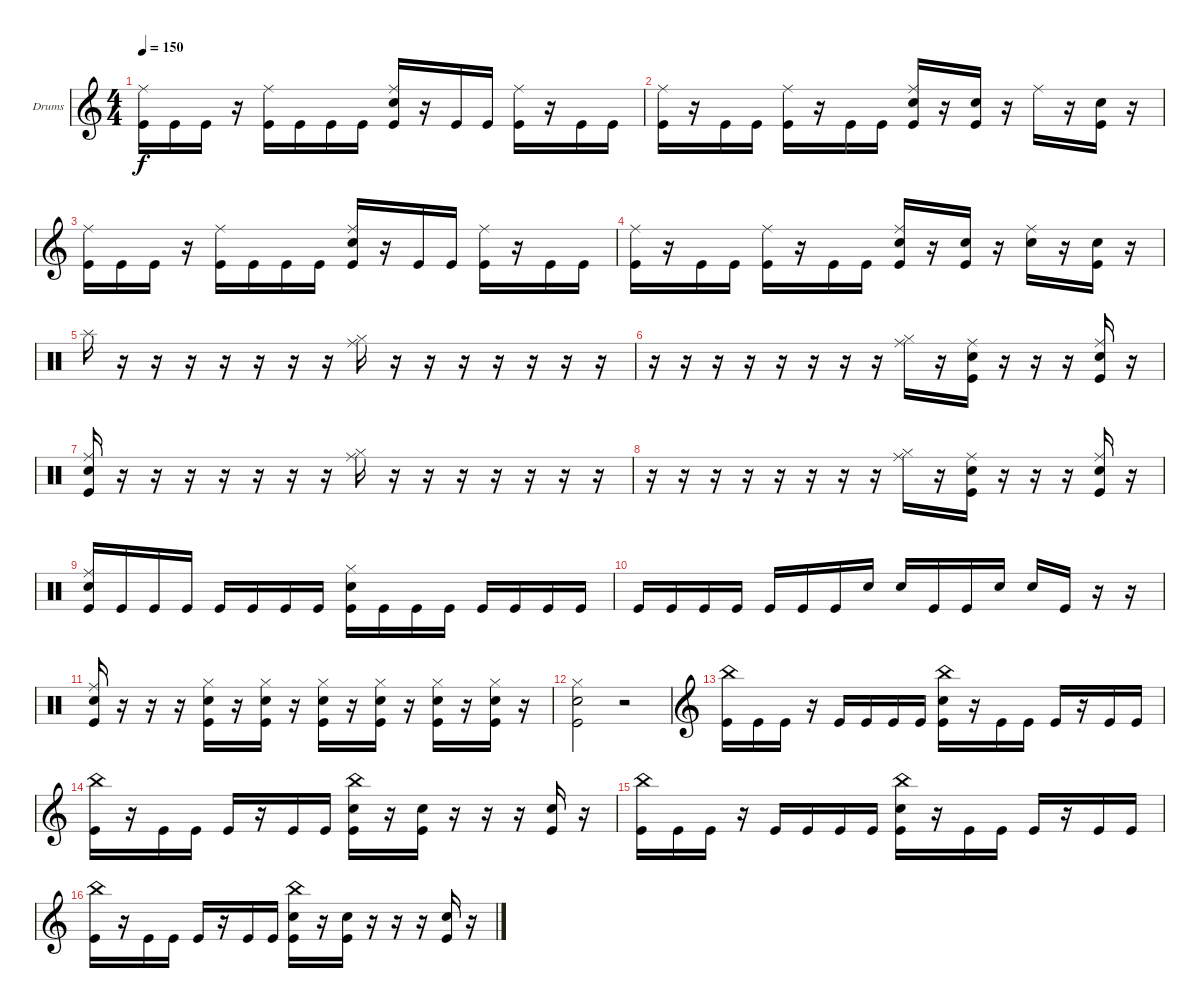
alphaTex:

\defaultSystemsLayout 4
\bracketExtendMode groupsimilarinstruments
\firstSystemTrackNameOrientation horizontal
\otherSystemsTrackNameOrientation horizontal
\track ("Drumkit" "Drums") {instrument percussion}
\staff {score}
\articulation defaults
\ts (4 4)
\tempo 150
\clef g2
\ks c
("Kick (hit)" "Ride (middle)").16{dy f} "Kick (hit)".16 "Kick (hit)".16 r.16 ("Kick (hit)" "Ride (middle)").16 "Kick (hit)".16 "Kick (hit)".16 "Kick (hit)".16 ("Kick (hit)" "Snare (hit) 2" "Ride (middle)").16 r.16 "Kick (hit)".16 "Kick (hit)".16 ("Kick (hit)" "Ride (middle)").16 r.16 "Kick (hit)".16 "Kick (hit)".16 |
("Kick (hit)" "Ride (middle)").16 r.16 "Kick (hit)".16 "Kick (hit)".16 ("Kick (hit)" "Ride (middle)").16 r.16 "Kick (hit)".16 "Kick (hit)".16 ("Kick (hit)" "Snare (hit) 2" "Ride (middle)").16 r.16 ("Kick (hit)" "Snare (hit) 2").16 r.16 "Ride (middle)".16 r.16 ("Kick (hit)" "Snare (hit) 2").16 r.16 |
("Kick (hit)" "Ride (middle)").16 "Kick (hit)".16 "Kick (hit)".16 r.16 ("Kick (hit)" "Ride (middle)").16 "Kick (hit)".16 "Kick (hit)".16 "Kick (hit)".16 ("Kick (hit)" "Snare (hit) 2" "Ride (middle)").16 r.16 "Kick (hit)".16 "Kick (hit)".16 ("Kick (hit)" "Ride (middle)").16 r.16 "Kick (hit)".16 "Kick (hit)".16 |
("Kick (hit)" "Ride (middle)").16 r.16 "Kick (hit)".16 "Kick (hit)".16 ("Kick (hit)" "Ride (middle)").16 r.16 "Kick (hit)".16 "Kick (hit)".16 ("Kick (hit)" "Snare (hit) 2" "Ride (middle)").16 r.16 ("Kick (hit)" "Snare (hit) 2").16 r.16 ("Snare (hit) 2" "Ride (middle)").16 r.16 ("Kick (hit)" "Snare (hit) 2").16 r.16 |
\clef neutral "Splash (hit)".16
r.16 r.16 r.16 r.16 r.16 r.16 r.16 ("Ride (middle)" "Hi-Hat (closed)").16 r.16 r.16 r.16 r.16 r.16 r.16 r.16 |
r.16 r.16 r.16 r.16 r.16 r.16 r.16 r.16 ("Ride (middle)" "Hi-Hat (closed)").16 r.16 ("Kick (hit)" "Snare (hit) 2" "Ride (middle)").16 r.16 r.16 r.16 ("Kick (hit)" "Snare (hit) 2" "Ride (middle)").16 r.16 |
("Snare (hit) 2" "Kick (hit)" "Ride (middle)").16 r.16 r.16 r.16 r.16 r.16 r.16 r.16 ("Ride (middle)" "Hi-Hat (closed)").16 r.16 r.16 r.16 r.16 r.16 r.16 r.16 |
r.16 r.16 r.16 r.16 r.16 r.16 r.16 r.16 ("Ride (middle)" "Hi-Hat (closed)").16 r.16 ("Kick (hit)" "Snare (hit) 2" "Ride (middle)").16 r.16 r.16 r.16 ("Kick (hit)" "Snare (hit) 2" "Ride (middle)").16 r.16 |
("Snare (hit) 2" "Kick (hit)" "Ride (middle)").16 "Kick (hit)".16 "Kick (hit)".16 "Kick (hit)".16 "Kick (hit)".16 "Kick (hit)".16 "Kick (hit)".16 "Kick (hit)".16 ("Kick (hit)" "Snare (hit) 2" "Hi-Hat (closed)").16 "Kick (hit)".16 "Kick (hit)".16 "Kick (hit)".16 "Kick (hit)".16 "Kick (hit)".16 "Kick (hit)".16 "Kick (hit)".16 |
"Kick (hit)".16 "Kick (hit)".16 "Kick (hit)".16 "Kick (hit)".16 "Kick (hit)".16 "Kick (hit)".16 "Kick (hit)".16 "Snare (hit) 2".16 "Snare (hit) 2".16 "Kick (hit)".16 "Kick (hit)".16 "Snare (hit) 2".16 "Snare (hit) 2".16 "Kick (hit)".16 r.16 r.16 |
("Snare (hit) 2" "Kick (hit)" "Ride (middle)").16 r.16 r.16 r.16 ("Kick (hit)" "Snare (hit) 2" "Hi-Hat (closed)").16 r.16 ("Kick (hit)" "Snare (hit) 2" "Hi-Hat (closed)").16 r.16 ("Kick (hit)" "Snare (hit) 2" "Hi-Hat (closed)").16 r.16 ("Kick (hit)" "Snare (hit) 2" "Hi-Hat (closed)").16 r.16 ("Kick (hit)" "Snare (hit) 2" "Hi-Hat (closed)").16 r.16 ("Kick (hit)" "Snare (hit) 2" "Hi-Hat (closed)").16 r.16 |
("Snare (hit) 2" "Kick (hit)" "Hi-Hat (closed)").2 r.2 |
\clef g2
("Kick (hit)" "China (hit)").16 "Kick (hit)".16 "Kick (hit)".16 r.16 "Kick (hit)".16 "Kick (hit)".16 "Kick (hit)".16 "Kick (hit)".16 ("Kick (hit)" "Snare (hit) 2" "China (hit)").16 r.16 "Kick (hit)".16 "Kick (hit)".16 "Kick (hit)".16 r.16 "Kick (hit)".16 "Kick (hit)".16 |
("Kick (hit)" "China (hit)").16 r.16 "Kick (hit)".16 "Kick (hit)".16 "Kick (hit)".16 r.16 "Kick (hit)".16 "Kick (hit)".16 ("Kick (hit)" "Snare (hit) 2" "China (hit)").16 r.16 ("Kick (hit)" "Snare (hit) 2").16 r.16 r.16 r.16 ("Kick (hit)" "Snare (hit) 2").16 r.16 |
("Kick (hit)" "China (hit)").16 "Kick (hit)".16 "Kick (hit)".16 r.16 "Kick (hit)".16 "Kick (hit)".16 "Kick (hit)".16 "Kick (hit)".16 ("Kick (hit)" "Snare (hit) 2" "China (hit)").16 r.16 "Kick (hit)".16 "Kick (hit)".16 "Kick (hit)".16 r.16 "Kick (hit)".16 "Kick (hit)".16 |
("Kick (hit)" "China (hit)").16 r.16 "Kick (hit)".16 "Kick (hit)".16 "Kick (hit)".16 r.16 "Kick (hit)".16 "Kick (hit)".16 ("Kick (hit)" "Snare (hit) 2" "China (hit)").16 r.16 ("Kick (hit)" "Snare (hit) 2").16 r.16 r.16 r.16 ("Kick (hit)" "Snare (hit) 2").16 r.16
